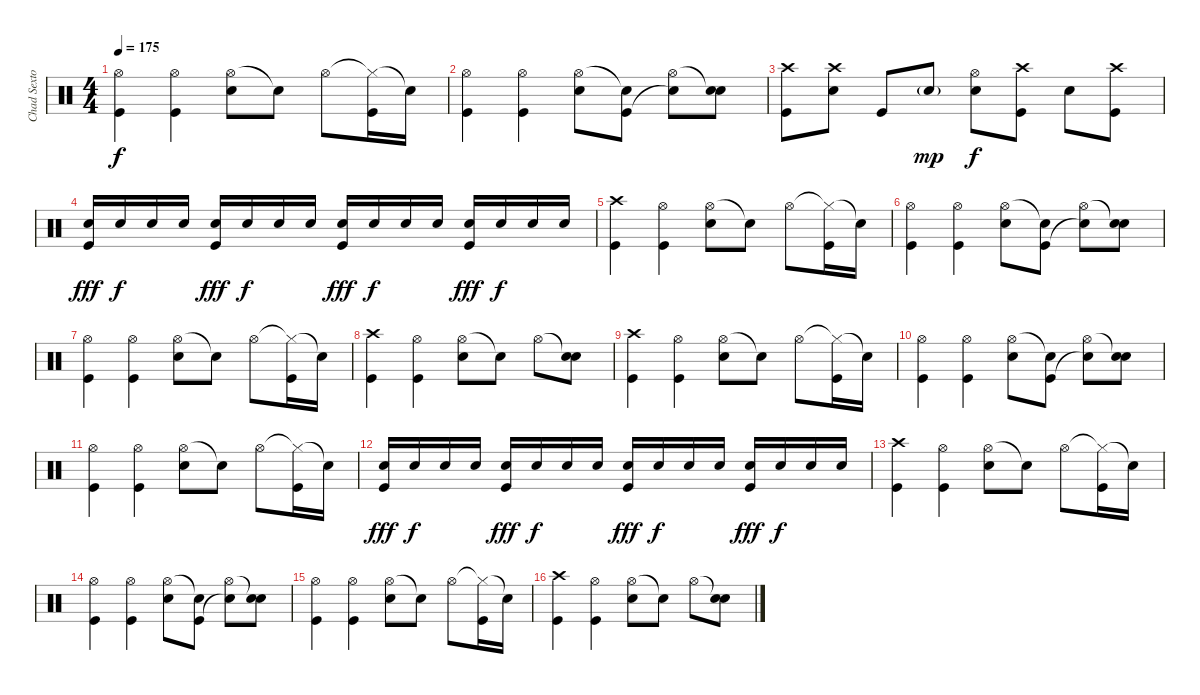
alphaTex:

\track ("Chad Sexton" "Chad Sexto") {instrument percussion}
\staff {score}
\articulation defaults
\ts (4 4)
\tempo 175
\clef neutral
\ks c
("Hi-Hat (open)" "Kick (hit)").4{dy f} ("Hi-Hat (open)" "Kick (hit)").4 ("Hi-Hat (open)" "Snare (hit) 2").8 "Snare (hit)"{t}.8 "Hi-Hat (open)".8 ("Hi-Hat (closed)"{t} "Kick (hit)").16 "Snare (hit)"{t}.16 |
("Hi-Hat (open)" "Kick (hit)").4 ("Hi-Hat (open)" "Kick (hit)").4 ("Hi-Hat (open)" "Snare (hit) 2").8 ("Snare (hit)"{t} "Kick (hit)").8 ("Hi-Hat (open)" "Snare (hit)"{t}).8 ("Snare (hit)"{t} "Snare (hit) 2").8 |
("Crash high (hit)" "Kick (hit)").8 ("Crash high (hit)" "Snare (hit) 2").8 "Kick (hit)".8 "Snare (hit) 2"{g}.8{dy mp} ("Hi-Hat (open)" "Snare (hit) 2").8{dy f} ("Crash high (hit)" "Kick (hit)").8 "Snare (hit) 2".8 ("Crash high (hit)" "Kick (hit)").8 |
("Snare (hit) 2" "Kick (hit)").16{dy fff} "Snare (hit) 2".16{dy f} "Snare (hit) 2".16 "Snare (hit) 2".16 ("Snare (hit) 2" "Kick (hit)").16{dy fff} "Snare (hit) 2".16{dy f} "Snare (hit) 2".16 "Snare (hit) 2".16 ("Snare (hit) 2" "Kick (hit)").16{dy fff} "Snare (hit) 2".16{dy f} "Snare (hit) 2".16 "Snare (hit) 2".16 ("Snare (hit) 2" "Kick (hit)").16{dy fff} "Snare (hit) 2".16{dy f} "Snare (hit) 2".16 "Snare (hit) 2".16 |
("Crash high (hit)" "Kick (hit)").4 ("Hi-Hat (open)" "Kick (hit)").4 ("Hi-Hat (open)" "Snare (hit) 2").8 "Snare (hit)"{t}.8 "Hi-Hat (open)".8 ("Hi-Hat (closed)"{t} "Kick (hit)").16 "Snare (hit)"{t}.16 |
("Hi-Hat (open)" "Kick (hit)").4 ("Hi-Hat (open)" "Kick (hit)").4 ("Hi-Hat (open)" "Snare (hit) 2").8 ("Snare (hit)"{t} "Kick (hit)").8 ("Hi-Hat (open)" "Snare (hit)"{t}).8 ("Snare (hit)"{t} "Snare (hit) 2").8 |
("Hi-Hat (open)" "Kick (hit)").4 ("Hi-Hat (open)" "Kick (hit)").4 ("Hi-Hat (open)" "Snare (hit) 2").8 "Snare (hit)"{t}.8 "Hi-Hat (open)".8 ("Hi-Hat (closed)"{t} "Kick (hit)").16 "Snare (hit)"{t}.16 |
("Crash high (hit)" "Kick (hit)").4 ("Hi-Hat (open)" "Kick (hit)").4 ("Hi-Hat (open)" "Snare (hit) 2").8 "Snare (hit)"{t}.8 "Hi-Hat (open)".8 ("Snare (hit)"{t} "Snare (hit) 2").8 |
("Crash high (hit)" "Kick (hit)").4 ("Hi-Hat (open)" "Kick (hit)").4 ("Hi-Hat (open)" "Snare (hit) 2").8 "Snare (hit)"{t}.8 "Hi-Hat (open)".8 ("Hi-Hat (closed)"{t} "Kick (hit)").16 "Snare (hit)"{t}.16 |
("Hi-Hat (open)" "Kick (hit)").4 ("Hi-Hat (open)" "Kick (hit)").4 ("Hi-Hat (open)" "Snare (hit) 2").8 ("Snare (hit)"{t} "Kick (hit)").8 ("Hi-Hat (open)" "Snare (hit)"{t}).8 ("Snare (hit)"{t} "Snare (hit) 2").8 |
("Hi-Hat (open)" "Kick (hit)").4 ("Hi-Hat (open)" "Kick (hit)").4 ("Hi-Hat (open)" "Snare (hit) 2").8 "Snare (hit)"{t}.8 "Hi-Hat (open)".8 ("Hi-Hat (closed)"{t} "Kick (hit)").16 "Snare (hit)"{t}.16 |
("Snare (hit) 2" "Kick (hit)").16{dy fff} "Snare (hit) 2".16{dy f} "Snare (hit) 2".16 "Snare (hit) 2".16 ("Snare (hit) 2" "Kick (hit)").16{dy fff} "Snare (hit) 2".16{dy f} "Snare (hit) 2".16 "Snare (hit) 2".16 ("Snare (hit) 2" "Kick (hit)").16{dy fff} "Snare (hit) 2".16{dy f} "Snare (hit) 2".16 "Snare (hit) 2".16 ("Snare (hit) 2" "Kick (hit)").16{dy fff} "Snare (hit) 2".16{dy f} "Snare (hit) 2".16 "Snare (hit) 2".16 |
("Crash high (hit)" "Kick (hit)").4 ("Hi-Hat (open)" "Kick (hit)").4 ("Hi-Hat (open)" "Snare (hit) 2").8 "Snare (hit)"{t}.8 "Hi-Hat (open)".8 ("Hi-Hat (closed)"{t} "Kick (hit)").16 "Snare (hit)"{t}.16 |
("Hi-Hat (open)" "Kick (hit)").4 ("Hi-Hat (open)" "Kick (hit)").4 ("Hi-Hat (open)" "Snare (hit) 2").8 ("Snare (hit)"{t} "Kick (hit)").8 ("Hi-Hat (open)" "Snare (hit)"{t}).8 ("Snare (hit)"{t} "Snare (hit) 2").8 |
("Hi-Hat (open)" "Kick (hit)").4 ("Hi-Hat (open)" "Kick (hit)").4 ("Hi-Hat (open)" "Snare (hit) 2").8 "Snare (hit)"{t}.8 "Hi-Hat (open)".8 ("Hi-Hat (closed)"{t} "Kick (hit)").16 "Snare (hit)"{t}.16 |
("Crash high (hit)" "Kick (hit)").4 ("Hi-Hat (open)" "Kick (hit)").4 ("Hi-Hat (open)" "Snare (hit) 2").8 "Snare (hit)"{t}.8 "Hi-Hat (open)".8 ("Snare (hit)"{t} "Snare (hit) 2").8
